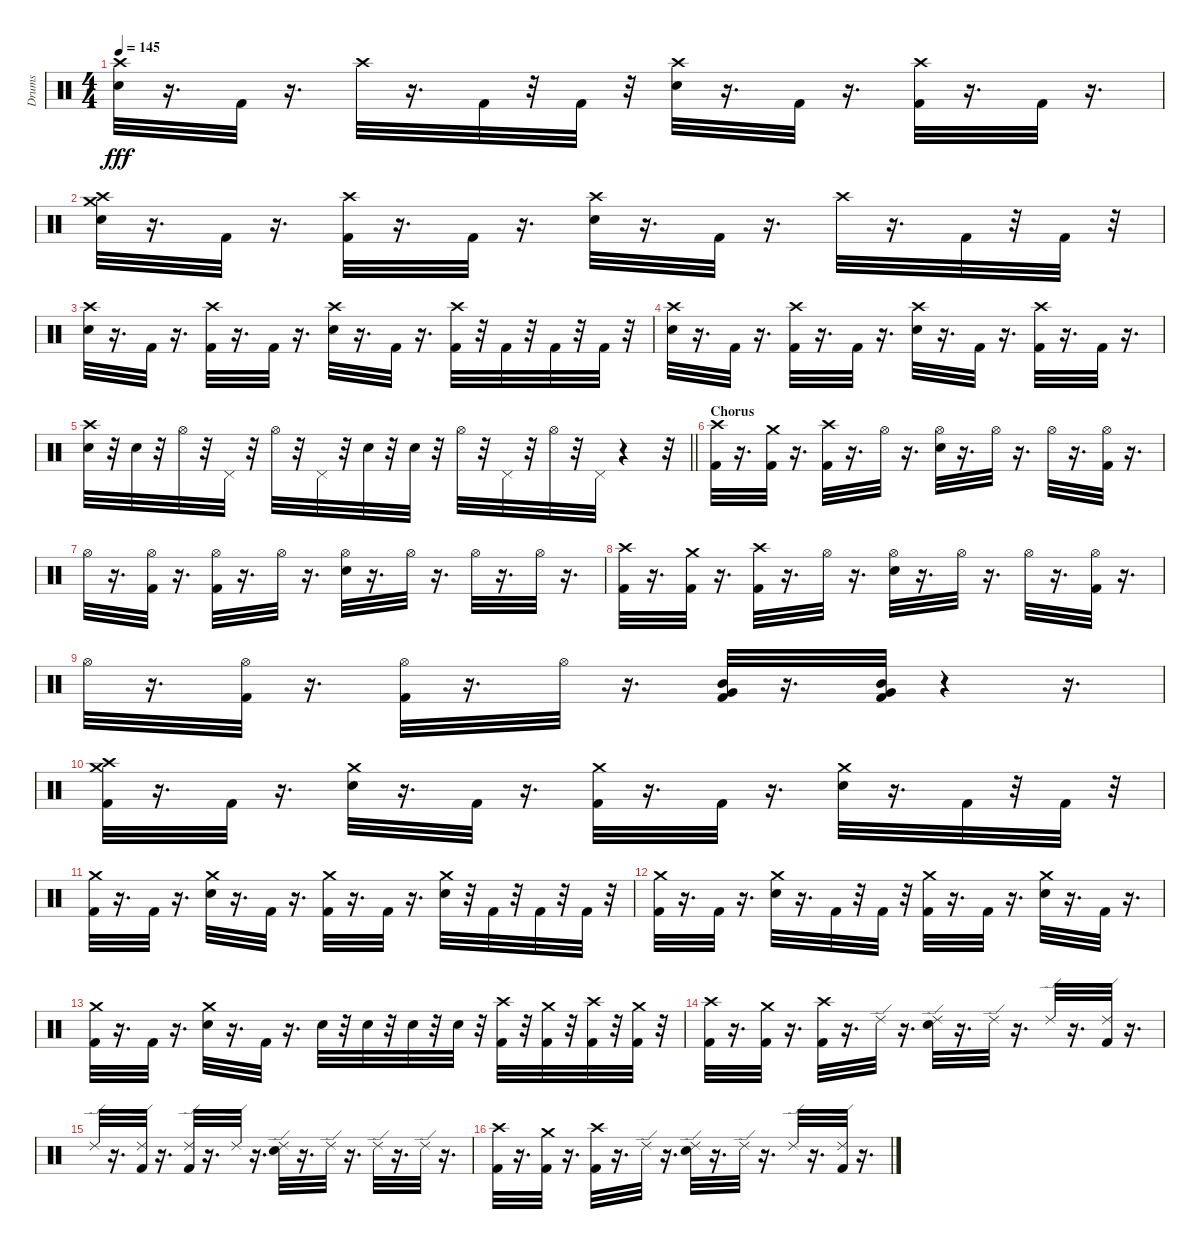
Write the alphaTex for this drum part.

\track ("Drums" "Drums") {instrument percussion}
\staff {score}
\articulation defaults
\ts (4 4)
\tempo 145
\clef neutral
\ks c
("Snare (hit) 2" "Crash high (hit)").32{dy fff} r.16{d} "Kick (hit) 2".32 r.16{d} "Crash high (hit)".32 r.16{d} "Kick (hit) 2".32 r.32 "Kick (hit) 2".32 r.32 ("Snare (hit) 2" "Crash high (hit)").32 r.16{d} "Kick (hit) 2".32 r.16{d} ("Kick (hit) 2" "Crash high (hit)").32 r.16{d} "Kick (hit) 2".32 r.16{d} |
("Snare (hit) 2" "Crash medium (hit)" "Crash high (hit)").32 r.16{d} "Kick (hit) 2".32 r.16{d} ("Kick (hit) 2" "Crash high (hit)").32 r.16{d} "Kick (hit) 2".32 r.16{d} ("Snare (hit) 2" "Crash high (hit)").32 r.16{d} "Kick (hit) 2".32 r.16{d} "Crash high (hit)".32 r.16{d} "Kick (hit) 2".32 r.32 "Kick (hit) 2".32 r.32 |
("Snare (hit) 2" "Crash high (hit)").32 r.16{d} "Kick (hit) 2".32 r.16{d} ("Kick (hit) 2" "Crash high (hit)").32 r.16{d} "Kick (hit) 2".32 r.16{d} ("Snare (hit) 2" "Crash high (hit)").32 r.16{d} "Kick (hit) 2".32 r.16{d} ("Kick (hit) 2" "Crash high (hit)").32 r.32 "Kick (hit) 2".32 r.32 "Kick (hit) 2".32 r.32 "Kick (hit) 2".32 r.32 |
("Snare (hit) 2" "Crash high (hit)").32 r.16{d} "Kick (hit) 2".32 r.16{d} ("Kick (hit) 2" "Crash high (hit)").32 r.16{d} "Kick (hit) 2".32 r.16{d} ("Snare (hit) 2" "Crash high (hit)").32 r.16{d} "Kick (hit) 2".32 r.16{d} ("Kick (hit) 2" "Crash high (hit)").32 r.16{d} "Kick (hit) 2".32 r.16{d} |
\barLineRight lightlight
("Snare (hit) 2" "Crash high (hit)").32 r.32 "Snare (hit) 2".32 r.32 "Hi-Hat (open)".32 r.32 "Pedal Hi-Hat (hit)".32 r.32 "Hi-Hat (open)".32 r.32 "Pedal Hi-Hat (hit)".32 r.32 "Snare (hit) 2".32 r.32 "Snare (hit) 2".32 r.32 "Hi-Hat (open)".32 r.32 "Pedal Hi-Hat (hit)".32 r.32 "Hi-Hat (open)".32 r.32 "Pedal Hi-Hat (hit)".32 r.4 r.32 |
\section ("" "Chorus")
("Crash high (hit)" "Kick (hit) 2").32 r.16{d} ("Crash medium (hit)" "Kick (hit) 2").32 r.16{d} ("Crash high (hit)" "Kick (hit) 2").32 r.16{d} "Hi-Hat (open)".32 r.16{d} ("Snare (hit) 2" "Hi-Hat (open)").32 r.16{d} "Hi-Hat (open)".32 r.16{d} "Hi-Hat (open)".32 r.16{d} ("Kick (hit) 2" "Hi-Hat (open)").32 r.16{d} |
"Hi-Hat (open)".32 r.16{d} ("Kick (hit) 2" "Hi-Hat (open)").32 r.16{d} ("Kick (hit) 2" "Hi-Hat (open)").32 r.16{d} "Hi-Hat (open)".32 r.16{d} ("Snare (hit) 2" "Hi-Hat (open)").32 r.16{d} "Hi-Hat (open)".32 r.16{d} "Hi-Hat (open)".32 r.16{d} "Hi-Hat (open)".32 r.16{d} |
("Crash high (hit)" "Kick (hit) 2").32 r.16{d} ("Crash medium (hit)" "Kick (hit) 2").32 r.16{d} ("Crash high (hit)" "Kick (hit) 2").32 r.16{d} "Hi-Hat (open)".32 r.16{d} ("Snare (hit) 2" "Hi-Hat (open)").32 r.16{d} "Hi-Hat (open)".32 r.16{d} "Hi-Hat (open)".32 r.16{d} ("Kick (hit) 2" "Hi-Hat (open)").32 r.16{d} |
"Hi-Hat (open)".32 r.16{d} ("Hi-Hat (open)" "Kick (hit) 2").32 r.16{d} ("Hi-Hat (open)" "Kick (hit) 2").32 r.16{d} "Hi-Hat (open)".32 r.16{d} ("Mid Tom (hit)" "Very Low Tom (hit)" "Kick (hit) 2").32 r.16{d} ("Mid Tom (hit)" "Very Low Tom (hit)" "Kick (hit) 2").32 r.4 r.16{d} |
("Crash medium (hit)" "Crash high (hit)" "Kick (hit) 2").32 r.16{d} "Kick (hit) 2".32 r.16{d} ("Crash medium (hit)" "Snare (hit) 2").32 r.16{d} "Kick (hit) 2".32 r.16{d} ("Kick (hit) 2" "Crash medium (hit)").32 r.16{d} "Kick (hit) 2".32 r.16{d} ("Crash medium (hit)" "Snare (hit) 2").32 r.16{d} "Kick (hit) 2".32 r.32 "Kick (hit) 2".32 r.32 |
("Kick (hit) 2" "Crash medium (hit)").32 r.16{d} "Kick (hit) 2".32 r.16{d} ("Crash medium (hit)" "Snare (hit) 2").32 r.16{d} "Kick (hit) 2".32 r.16{d} ("Kick (hit) 2" "Crash medium (hit)").32 r.16{d} "Kick (hit) 2".32 r.16{d} ("Crash medium (hit)" "Snare (hit) 2").32 r.32 "Kick (hit) 2".32 r.32 "Kick (hit) 2".32 r.32 "Kick (hit) 2".32 r.32 |
("Kick (hit) 2" "Crash medium (hit)").32 r.16{d} "Kick (hit) 2".32 r.16{d} ("Crash medium (hit)" "Snare (hit) 2").32 r.16{d} "Kick (hit) 2".32 r.32 "Kick (hit) 2".32 r.32 ("Kick (hit) 2" "Crash medium (hit)").32 r.16{d} "Kick (hit) 2".32 r.16{d} ("Crash medium (hit)" "Snare (hit) 2").32 r.16{d} "Kick (hit) 2".32 r.16{d} |
("Kick (hit) 2" "Crash medium (hit)").32 r.16{d} "Kick (hit) 2".32 r.16{d} ("Snare (hit) 2" "Crash medium (hit)").32 r.16{d} "Kick (hit) 2".32 r.16{d} "Snare (hit) 2".32 r.32 "Snare (hit) 2".32 r.32 "Snare (hit) 2".32 r.32 "Snare (hit) 2".32 r.32 ("Crash high (hit)" "Kick (hit) 2").32 r.32 ("Crash medium (hit)" "Kick (hit) 2").32 r.32 ("Crash high (hit)" "Kick (hit) 2").32 r.32 ("Crash medium (hit)" "Kick (hit) 2").32 r.32 |
("Crash high (hit)" "Kick (hit) 2").32 r.16{d} ("Crash medium (hit)" "Kick (hit) 2").32 r.16{d} ("Crash high (hit)" "Kick (hit) 2").32 r.16{d} "Ride (edge) 2".32 r.16{d} ("Ride (edge) 2" "Snare (hit) 2").32 r.16{d} "Ride (edge) 2".32 r.16{d} "Ride (edge) 2".32 r.16{d} ("Ride (edge) 2" "Kick (hit) 2").32 r.16{d} |
"Ride (edge) 2".32 r.16{d} ("Ride (edge) 2" "Kick (hit) 2").32 r.16{d} ("Ride (edge) 2" "Kick (hit) 2").32 r.16{d} "Ride (edge) 2".32 r.16{d} ("Ride (edge) 2" "Snare (hit) 2").32 r.16{d} "Ride (edge) 2".32 r.16{d} "Ride (edge) 2".32 r.16{d} "Ride (edge) 2".32 r.16{d} |
("Crash high (hit)" "Kick (hit) 2").32 r.16{d} ("Crash medium (hit)" "Kick (hit) 2").32 r.16{d} ("Crash high (hit)" "Kick (hit) 2").32 r.16{d} "Ride (edge) 2".32 r.16{d} ("Ride (edge) 2" "Snare (hit) 2").32 r.16{d} "Ride (edge) 2".32 r.16{d} "Ride (edge) 2".32 r.16{d} ("Ride (edge) 2" "Kick (hit) 2").32 r.16{d}
